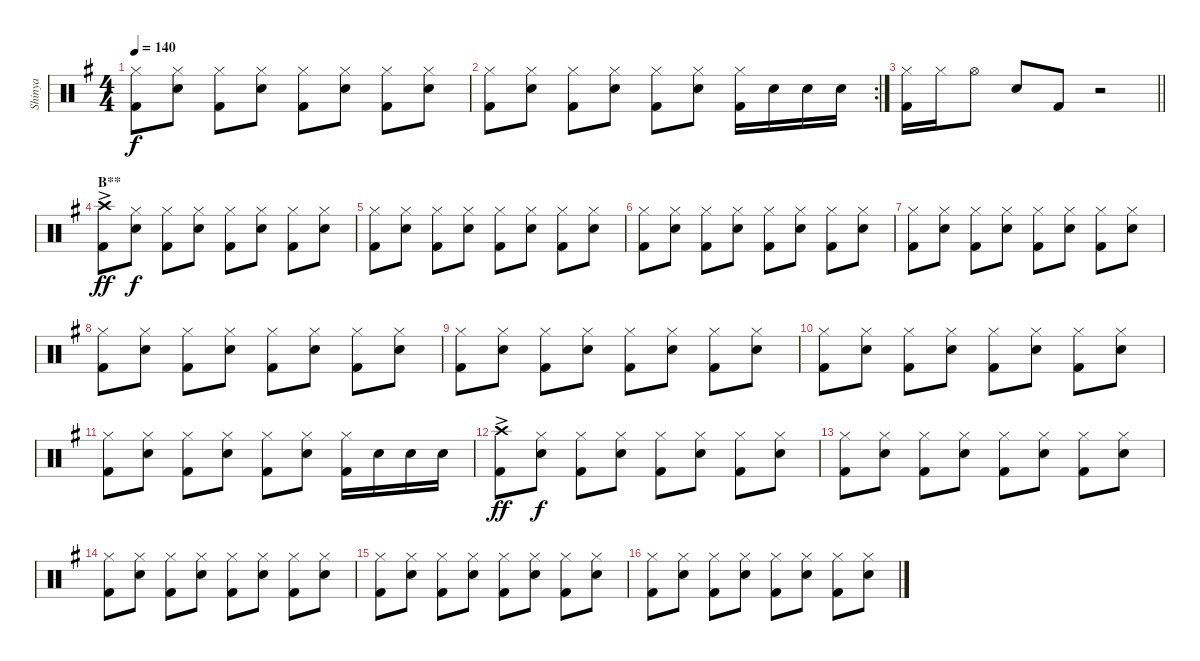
\track ("Shinya" "Shinya") {instrument percussion}
\staff {score}
\articulation defaults
\ts (4 4)
\tempo 140
\clef neutral
\ks g
("Hi-Hat (closed)" "Kick (hit) 2").8{dy f} ("Hi-Hat (closed)" "Snare (hit) 2").8 ("Hi-Hat (closed)" "Kick (hit) 2").8 ("Hi-Hat (closed)" "Snare (hit) 2").8 ("Hi-Hat (closed)" "Kick (hit) 2").8 ("Hi-Hat (closed)" "Snare (hit) 2").8 ("Hi-Hat (closed)" "Kick (hit) 2").8 ("Hi-Hat (closed)" "Snare (hit) 2").8 |
\rc 2
("Hi-Hat (closed)" "Kick (hit) 2").8 ("Hi-Hat (closed)" "Snare (hit) 2").8 ("Hi-Hat (closed)" "Kick (hit) 2").8 ("Hi-Hat (closed)" "Snare (hit) 2").8 ("Hi-Hat (closed)" "Kick (hit) 2").8 ("Hi-Hat (closed)" "Snare (hit) 2").8 ("Hi-Hat (closed)" "Kick (hit) 2").16 "Snare (hit) 2".16 "Snare (hit) 2".16 "Snare (hit) 2".16 |
\barLineRight lightlight
("Hi-Hat (closed)" "Kick (hit) 2").16 "Hi-Hat (closed)".16 "Hi-Hat (open)".8 "Snare (hit) 2".8 "Kick (hit) 2".8 r.2 |
\section ("" "B**")
("Crash high (hit)"{ac} "Kick (hit) 2").8{dy ff} ("Hi-Hat (closed)" "Snare (hit) 2").8{dy f} ("Hi-Hat (closed)" "Kick (hit) 2").8 ("Hi-Hat (closed)" "Snare (hit) 2").8 ("Hi-Hat (closed)" "Kick (hit) 2").8 ("Hi-Hat (closed)" "Snare (hit) 2").8 ("Hi-Hat (closed)" "Kick (hit) 2").8 ("Hi-Hat (closed)" "Snare (hit) 2").8 |
("Hi-Hat (closed)" "Kick (hit) 2").8 ("Hi-Hat (closed)" "Snare (hit) 2").8 ("Hi-Hat (closed)" "Kick (hit) 2").8 ("Hi-Hat (closed)" "Snare (hit) 2").8 ("Hi-Hat (closed)" "Kick (hit) 2").8 ("Hi-Hat (closed)" "Snare (hit) 2").8 ("Hi-Hat (closed)" "Kick (hit) 2").8 ("Hi-Hat (closed)" "Snare (hit) 2").8 |
("Hi-Hat (closed)" "Kick (hit) 2").8 ("Hi-Hat (closed)" "Snare (hit) 2").8 ("Hi-Hat (closed)" "Kick (hit) 2").8 ("Hi-Hat (closed)" "Snare (hit) 2").8 ("Hi-Hat (closed)" "Kick (hit) 2").8 ("Hi-Hat (closed)" "Snare (hit) 2").8 ("Hi-Hat (closed)" "Kick (hit) 2").8 ("Hi-Hat (closed)" "Snare (hit) 2").8 |
("Hi-Hat (closed)" "Kick (hit) 2").8 ("Hi-Hat (closed)" "Snare (hit) 2").8 ("Hi-Hat (closed)" "Kick (hit) 2").8 ("Hi-Hat (closed)" "Snare (hit) 2").8 ("Hi-Hat (closed)" "Kick (hit) 2").8 ("Hi-Hat (closed)" "Snare (hit) 2").8 ("Hi-Hat (closed)" "Kick (hit) 2").8 ("Hi-Hat (closed)" "Snare (hit) 2").8 |
("Hi-Hat (closed)" "Kick (hit) 2").8 ("Hi-Hat (closed)" "Snare (hit) 2").8 ("Hi-Hat (closed)" "Kick (hit) 2").8 ("Hi-Hat (closed)" "Snare (hit) 2").8 ("Hi-Hat (closed)" "Kick (hit) 2").8 ("Hi-Hat (closed)" "Snare (hit) 2").8 ("Hi-Hat (closed)" "Kick (hit) 2").8 ("Hi-Hat (closed)" "Snare (hit) 2").8 |
("Hi-Hat (closed)" "Kick (hit) 2").8 ("Hi-Hat (closed)" "Snare (hit) 2").8 ("Hi-Hat (closed)" "Kick (hit) 2").8 ("Hi-Hat (closed)" "Snare (hit) 2").8 ("Hi-Hat (closed)" "Kick (hit) 2").8 ("Hi-Hat (closed)" "Snare (hit) 2").8 ("Hi-Hat (closed)" "Kick (hit) 2").8 ("Hi-Hat (closed)" "Snare (hit) 2").8 |
("Hi-Hat (closed)" "Kick (hit) 2").8 ("Hi-Hat (closed)" "Snare (hit) 2").8 ("Hi-Hat (closed)" "Kick (hit) 2").8 ("Hi-Hat (closed)" "Snare (hit) 2").8 ("Hi-Hat (closed)" "Kick (hit) 2").8 ("Hi-Hat (closed)" "Snare (hit) 2").8 ("Hi-Hat (closed)" "Kick (hit) 2").8 ("Hi-Hat (closed)" "Snare (hit) 2").8 |
("Hi-Hat (closed)" "Kick (hit) 2").8 ("Hi-Hat (closed)" "Snare (hit) 2").8 ("Hi-Hat (closed)" "Kick (hit) 2").8 ("Hi-Hat (closed)" "Snare (hit) 2").8 ("Hi-Hat (closed)" "Kick (hit) 2").8 ("Hi-Hat (closed)" "Snare (hit) 2").8 ("Hi-Hat (closed)" "Kick (hit) 2").16 "Snare (hit) 2".16 "Snare (hit) 2".16 "Snare (hit) 2".16 |
("Crash high (hit)"{ac} "Kick (hit) 2").8{dy ff} ("Hi-Hat (closed)" "Snare (hit) 2").8{dy f} ("Hi-Hat (closed)" "Kick (hit) 2").8 ("Hi-Hat (closed)" "Snare (hit) 2").8 ("Hi-Hat (closed)" "Kick (hit) 2").8 ("Hi-Hat (closed)" "Snare (hit) 2").8 ("Hi-Hat (closed)" "Kick (hit) 2").8 ("Hi-Hat (closed)" "Snare (hit) 2").8 |
("Hi-Hat (closed)" "Kick (hit) 2").8 ("Hi-Hat (closed)" "Snare (hit) 2").8 ("Hi-Hat (closed)" "Kick (hit) 2").8 ("Hi-Hat (closed)" "Snare (hit) 2").8 ("Hi-Hat (closed)" "Kick (hit) 2").8 ("Hi-Hat (closed)" "Snare (hit) 2").8 ("Hi-Hat (closed)" "Kick (hit) 2").8 ("Hi-Hat (closed)" "Snare (hit) 2").8 |
("Hi-Hat (closed)" "Kick (hit) 2").8 ("Hi-Hat (closed)" "Snare (hit) 2").8 ("Hi-Hat (closed)" "Kick (hit) 2").8 ("Hi-Hat (closed)" "Snare (hit) 2").8 ("Hi-Hat (closed)" "Kick (hit) 2").8 ("Hi-Hat (closed)" "Snare (hit) 2").8 ("Hi-Hat (closed)" "Kick (hit) 2").8 ("Hi-Hat (closed)" "Snare (hit) 2").8 |
("Hi-Hat (closed)" "Kick (hit) 2").8 ("Hi-Hat (closed)" "Snare (hit) 2").8 ("Hi-Hat (closed)" "Kick (hit) 2").8 ("Hi-Hat (closed)" "Snare (hit) 2").8 ("Hi-Hat (closed)" "Kick (hit) 2").8 ("Hi-Hat (closed)" "Snare (hit) 2").8 ("Hi-Hat (closed)" "Kick (hit) 2").8 ("Hi-Hat (closed)" "Snare (hit) 2").8 |
("Hi-Hat (closed)" "Kick (hit) 2").8 ("Hi-Hat (closed)" "Snare (hit) 2").8 ("Hi-Hat (closed)" "Kick (hit) 2").8 ("Hi-Hat (closed)" "Snare (hit) 2").8 ("Hi-Hat (closed)" "Kick (hit) 2").8 ("Hi-Hat (closed)" "Snare (hit) 2").8 ("Hi-Hat (closed)" "Kick (hit) 2").8 ("Hi-Hat (closed)" "Snare (hit) 2").8
